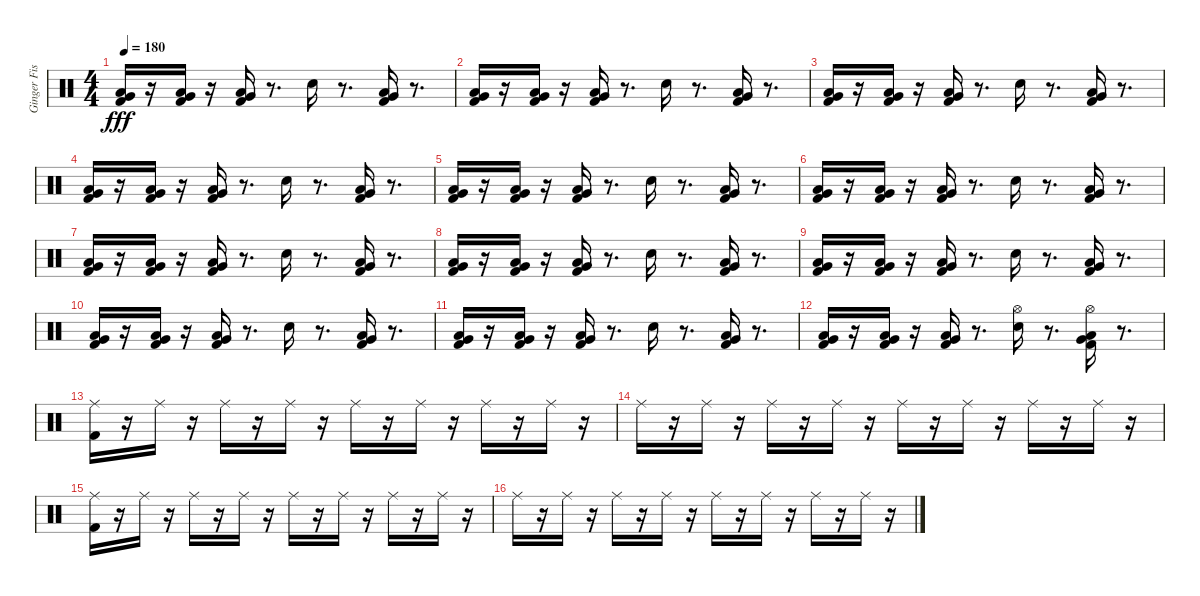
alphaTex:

\track ("Ginger Fish" "Ginger Fis") {instrument percussion}
\staff {score}
\articulation defaults
\ts (4 4)
\tempo 180
\clef neutral
\ks c
("Very Low Tom (hit)" "Low Floor Tom (hit)" "Kick (hit) 2").16{dy fff} r.16 ("Low Tom (hit)" "Very Low Tom (hit)" "Kick (hit) 2").16 r.16 ("Low Floor Tom (hit)" "Very Low Tom (hit)" "Kick (hit) 2").16 r.8{d} "Electric Snare (hit)".16 r.8{d} ("Kick (hit) 2" "Very Low Tom (hit)" "Low Floor Tom (hit)").16 r.8{d} |
("Kick (hit) 2" "Low Floor Tom (hit)" "Very Low Tom (hit)").16 r.16 ("Kick (hit) 2" "Very Low Tom (hit)" "Low Tom (hit)").16 r.16 ("Kick (hit) 2" "Low Floor Tom (hit)" "Very Low Tom (hit)").16 r.8{d} "Electric Snare (hit)".16 r.8{d} ("Kick (hit) 2" "Very Low Tom (hit)" "Low Floor Tom (hit)").16 r.8{d} |
("Very Low Tom (hit)" "Low Floor Tom (hit)" "Kick (hit) 2").16 r.16 ("Low Tom (hit)" "Very Low Tom (hit)" "Kick (hit) 2").16 r.16 ("Low Floor Tom (hit)" "Very Low Tom (hit)" "Kick (hit) 2").16 r.8{d} "Electric Snare (hit)".16 r.8{d} ("Kick (hit) 2" "Very Low Tom (hit)" "Low Floor Tom (hit)").16 r.8{d} |
("Kick (hit) 2" "Low Floor Tom (hit)" "Very Low Tom (hit)").16 r.16 ("Kick (hit) 2" "Very Low Tom (hit)" "Low Tom (hit)").16 r.16 ("Kick (hit) 2" "Low Floor Tom (hit)" "Very Low Tom (hit)").16 r.8{d} "Electric Snare (hit)".16 r.8{d} ("Kick (hit) 2" "Very Low Tom (hit)" "Low Floor Tom (hit)").16 r.8{d} |
("Very Low Tom (hit)" "Low Floor Tom (hit)" "Kick (hit) 2").16 r.16 ("Low Tom (hit)" "Very Low Tom (hit)" "Kick (hit) 2").16 r.16 ("Low Floor Tom (hit)" "Very Low Tom (hit)" "Kick (hit) 2").16 r.8{d} "Electric Snare (hit)".16 r.8{d} ("Kick (hit) 2" "Very Low Tom (hit)" "Low Floor Tom (hit)").16 r.8{d} |
("Kick (hit) 2" "Low Floor Tom (hit)" "Very Low Tom (hit)").16 r.16 ("Kick (hit) 2" "Very Low Tom (hit)" "Low Tom (hit)").16 r.16 ("Kick (hit) 2" "Low Floor Tom (hit)" "Very Low Tom (hit)").16 r.8{d} "Electric Snare (hit)".16 r.8{d} ("Kick (hit) 2" "Very Low Tom (hit)" "Low Floor Tom (hit)").16 r.8{d} |
("Very Low Tom (hit)" "Low Floor Tom (hit)" "Kick (hit) 2").16 r.16 ("Low Tom (hit)" "Very Low Tom (hit)" "Kick (hit) 2").16 r.16 ("Low Floor Tom (hit)" "Very Low Tom (hit)" "Kick (hit) 2").16 r.8{d} "Electric Snare (hit)".16 r.8{d} ("Kick (hit) 2" "Very Low Tom (hit)" "Low Floor Tom (hit)").16 r.8{d} |
("Kick (hit) 2" "Low Floor Tom (hit)" "Very Low Tom (hit)").16 r.16 ("Kick (hit) 2" "Very Low Tom (hit)" "Low Tom (hit)").16 r.16 ("Kick (hit) 2" "Low Floor Tom (hit)" "Very Low Tom (hit)").16 r.8{d} "Electric Snare (hit)".16 r.8{d} ("Kick (hit) 2" "Very Low Tom (hit)" "Low Floor Tom (hit)").16 r.8{d} |
("Very Low Tom (hit)" "Low Floor Tom (hit)" "Kick (hit) 2").16 r.16 ("Low Tom (hit)" "Very Low Tom (hit)" "Kick (hit) 2").16 r.16 ("Low Floor Tom (hit)" "Very Low Tom (hit)" "Kick (hit) 2").16 r.8{d} "Electric Snare (hit)".16 r.8{d} ("Kick (hit) 2" "Very Low Tom (hit)" "Low Floor Tom (hit)").16 r.8{d} |
("Kick (hit) 2" "Low Floor Tom (hit)" "Very Low Tom (hit)").16 r.16 ("Kick (hit) 2" "Very Low Tom (hit)" "Low Tom (hit)").16 r.16 ("Kick (hit) 2" "Low Floor Tom (hit)" "Very Low Tom (hit)").16 r.8{d} "Electric Snare (hit)".16 r.8{d} ("Kick (hit) 2" "Very Low Tom (hit)" "Low Floor Tom (hit)").16 r.8{d} |
("Very Low Tom (hit)" "Low Floor Tom (hit)" "Kick (hit) 2").16 r.16 ("Low Tom (hit)" "Very Low Tom (hit)" "Kick (hit) 2").16 r.16 ("Low Floor Tom (hit)" "Very Low Tom (hit)" "Kick (hit) 2").16 r.8{d} "Electric Snare (hit)".16 r.8{d} ("Kick (hit) 2" "Very Low Tom (hit)" "Low Floor Tom (hit)").16 r.8{d} |
("Kick (hit) 2" "Low Floor Tom (hit)" "Very Low Tom (hit)").16 r.16 ("Kick (hit) 2" "Very Low Tom (hit)" "Low Tom (hit)").16 r.16 ("Kick (hit) 2" "Low Floor Tom (hit)" "Very Low Tom (hit)").16 r.8{d} ("Electric Snare (hit)" "Hi-Hat (open)").16 r.8{d} ("Kick (hit) 2" "Hi-Hat (open)" "Very Low Tom (hit)" "Low Floor Tom (hit)").16 r.8{d} |
("Ride (middle)" "Kick (hit) 2").16 r.16 "Ride (middle)".16 r.16 "Ride (middle)".16 r.16 "Ride (middle)".16 r.16 "Ride (middle)".16 r.16 "Ride (middle)".16 r.16 "Ride (middle)".16 r.16 "Ride (middle)".16 r.16 |
"Ride (middle)".16 r.16 "Ride (middle)".16 r.16 "Ride (middle)".16 r.16 "Ride (middle)".16 r.16 "Ride (middle)".16 r.16 "Ride (middle)".16 r.16 "Ride (middle)".16 r.16 "Ride (middle)".16 r.16 |
("Kick (hit) 2" "Ride (middle)").16 r.16 "Ride (middle)".16 r.16 "Ride (middle)".16 r.16 "Ride (middle)".16 r.16 "Ride (middle)".16 r.16 "Ride (middle)".16 r.16 "Ride (middle)".16 r.16 "Ride (middle)".16 r.16 |
"Ride (middle)".16 r.16 "Ride (middle)".16 r.16 "Ride (middle)".16 r.16 "Ride (middle)".16 r.16 "Ride (middle)".16 r.16 "Ride (middle)".16 r.16 "Ride (middle)".16 r.16 "Ride (middle)".16 r.16
